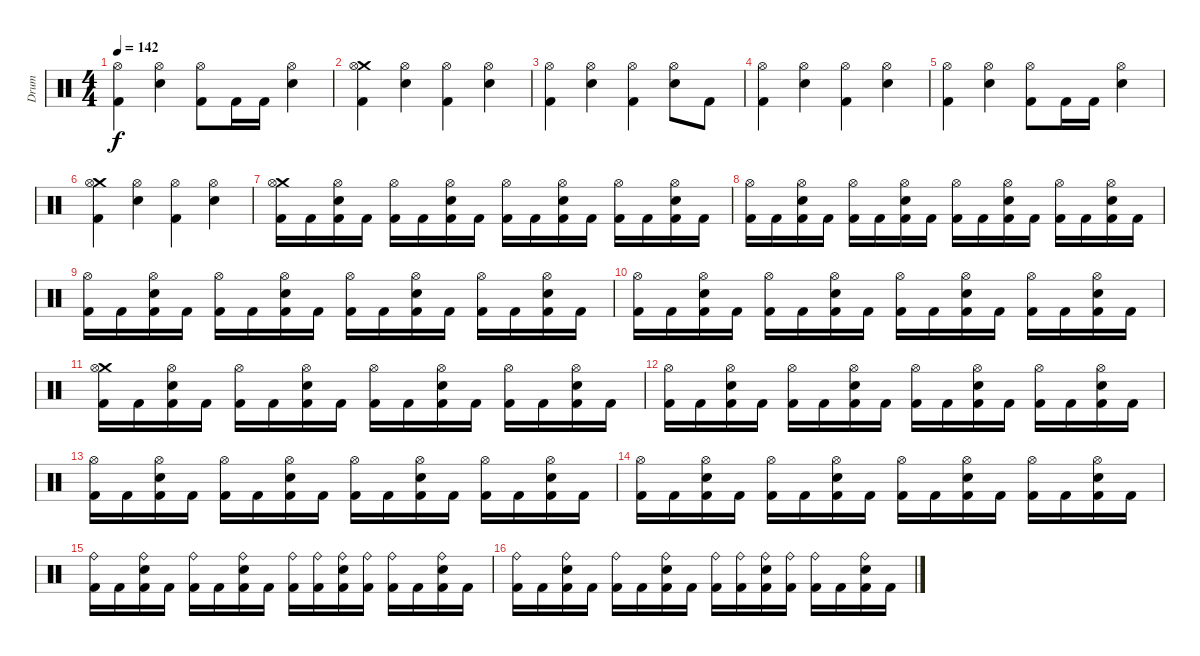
\track ("Drum" "Drum") {instrument percussion}
\staff {score}
\articulation defaults
\ts (4 4)
\tempo 142
\clef neutral
\ks c
("Kick (hit) 2" "Hi-Hat (open)").4{dy f} ("Electric Snare (hit)" "Hi-Hat (open)").4 ("Kick (hit) 2" "Hi-Hat (open)").8 "Kick (hit) 2".16 "Kick (hit) 2".16 ("Electric Snare (hit)" "Hi-Hat (open)").4 |
("Crash medium (hit)" "Kick (hit) 2" "Hi-Hat (open)").4 ("Electric Snare (hit)" "Hi-Hat (open)").4 ("Kick (hit) 2" "Hi-Hat (open)").4 ("Electric Snare (hit)" "Hi-Hat (open)").4 |
("Kick (hit) 2" "Hi-Hat (open)").4 ("Electric Snare (hit)" "Hi-Hat (open)").4 ("Kick (hit) 2" "Hi-Hat (open)").4 ("Electric Snare (hit)" "Hi-Hat (open)").8 "Kick (hit) 2".8 |
("Kick (hit) 2" "Hi-Hat (open)").4 ("Electric Snare (hit)" "Hi-Hat (open)").4 ("Kick (hit) 2" "Hi-Hat (open)").4 ("Electric Snare (hit)" "Hi-Hat (open)").4 |
("Kick (hit) 2" "Hi-Hat (open)").4 ("Electric Snare (hit)" "Hi-Hat (open)").4 ("Kick (hit) 2" "Hi-Hat (open)").8 "Kick (hit) 2".16 "Kick (hit) 2".16 ("Electric Snare (hit)" "Hi-Hat (open)").4 |
("Crash medium (hit)" "Kick (hit) 2" "Hi-Hat (open)").4 ("Electric Snare (hit)" "Hi-Hat (open)").4 ("Kick (hit) 2" "Hi-Hat (open)").4 ("Electric Snare (hit)" "Hi-Hat (open)").4 |
("Crash medium (hit)" "Hi-Hat (open)" "Kick (hit) 2").16 "Kick (hit) 2".16 ("Electric Snare (hit)" "Hi-Hat (open)" "Kick (hit) 2").16 "Kick (hit) 2".16 ("Hi-Hat (open)" "Kick (hit) 2").16 "Kick (hit) 2".16 ("Electric Snare (hit)" "Hi-Hat (open)" "Kick (hit) 2").16 "Kick (hit) 2".16 ("Hi-Hat (open)" "Kick (hit) 2").16 "Kick (hit) 2".16 ("Electric Snare (hit)" "Hi-Hat (open)" "Kick (hit) 2").16 "Kick (hit) 2".16 ("Hi-Hat (open)" "Kick (hit) 2").16 "Kick (hit) 2".16 ("Electric Snare (hit)" "Hi-Hat (open)" "Kick (hit) 2").16 "Kick (hit) 2".16 |
("Hi-Hat (open)" "Kick (hit) 2").16 "Kick (hit) 2".16 ("Electric Snare (hit)" "Hi-Hat (open)" "Kick (hit) 2").16 "Kick (hit) 2".16 ("Hi-Hat (open)" "Kick (hit) 2").16 "Kick (hit) 2".16 ("Electric Snare (hit)" "Hi-Hat (open)" "Kick (hit) 2").16 "Kick (hit) 2".16 ("Hi-Hat (open)" "Kick (hit) 2").16 "Kick (hit) 2".16 ("Electric Snare (hit)" "Hi-Hat (open)" "Kick (hit) 2").16 "Kick (hit) 2".16 ("Hi-Hat (open)" "Kick (hit) 2").16 "Kick (hit) 2".16 ("Electric Snare (hit)" "Hi-Hat (open)" "Kick (hit) 2").16 "Kick (hit) 2".16 |
("Hi-Hat (open)" "Kick (hit) 2").16 "Kick (hit) 2".16 ("Electric Snare (hit)" "Hi-Hat (open)" "Kick (hit) 2").16 "Kick (hit) 2".16 ("Hi-Hat (open)" "Kick (hit) 2").16 "Kick (hit) 2".16 ("Electric Snare (hit)" "Hi-Hat (open)" "Kick (hit) 2").16 "Kick (hit) 2".16 ("Hi-Hat (open)" "Kick (hit) 2").16 "Kick (hit) 2".16 ("Electric Snare (hit)" "Hi-Hat (open)" "Kick (hit) 2").16 "Kick (hit) 2".16 ("Hi-Hat (open)" "Kick (hit) 2").16 "Kick (hit) 2".16 ("Electric Snare (hit)" "Hi-Hat (open)" "Kick (hit) 2").16 "Kick (hit) 2".16 |
("Hi-Hat (open)" "Kick (hit) 2").16 "Kick (hit) 2".16 ("Electric Snare (hit)" "Hi-Hat (open)" "Kick (hit) 2").16 "Kick (hit) 2".16 ("Hi-Hat (open)" "Kick (hit) 2").16 "Kick (hit) 2".16 ("Electric Snare (hit)" "Hi-Hat (open)" "Kick (hit) 2").16 "Kick (hit) 2".16 ("Hi-Hat (open)" "Kick (hit) 2").16 "Kick (hit) 2".16 ("Electric Snare (hit)" "Hi-Hat (open)" "Kick (hit) 2").16 "Kick (hit) 2".16 ("Hi-Hat (open)" "Kick (hit) 2").16 "Kick (hit) 2".16 ("Electric Snare (hit)" "Hi-Hat (open)" "Kick (hit) 2").16 "Kick (hit) 2".16 |
("Crash medium (hit)" "Hi-Hat (open)" "Kick (hit) 2").16 "Kick (hit) 2".16 ("Electric Snare (hit)" "Hi-Hat (open)" "Kick (hit) 2").16 "Kick (hit) 2".16 ("Hi-Hat (open)" "Kick (hit) 2").16 "Kick (hit) 2".16 ("Electric Snare (hit)" "Hi-Hat (open)" "Kick (hit) 2").16 "Kick (hit) 2".16 ("Hi-Hat (open)" "Kick (hit) 2").16 "Kick (hit) 2".16 ("Electric Snare (hit)" "Hi-Hat (open)" "Kick (hit) 2").16 "Kick (hit) 2".16 ("Hi-Hat (open)" "Kick (hit) 2").16 "Kick (hit) 2".16 ("Electric Snare (hit)" "Hi-Hat (open)" "Kick (hit) 2").16 "Kick (hit) 2".16 |
("Hi-Hat (open)" "Kick (hit) 2").16 "Kick (hit) 2".16 ("Electric Snare (hit)" "Hi-Hat (open)" "Kick (hit) 2").16 "Kick (hit) 2".16 ("Hi-Hat (open)" "Kick (hit) 2").16 "Kick (hit) 2".16 ("Electric Snare (hit)" "Hi-Hat (open)" "Kick (hit) 2").16 "Kick (hit) 2".16 ("Hi-Hat (open)" "Kick (hit) 2").16 "Kick (hit) 2".16 ("Electric Snare (hit)" "Hi-Hat (open)" "Kick (hit) 2").16 "Kick (hit) 2".16 ("Hi-Hat (open)" "Kick (hit) 2").16 "Kick (hit) 2".16 ("Electric Snare (hit)" "Hi-Hat (open)" "Kick (hit) 2").16 "Kick (hit) 2".16 |
("Hi-Hat (open)" "Kick (hit) 2").16 "Kick (hit) 2".16 ("Electric Snare (hit)" "Hi-Hat (open)" "Kick (hit) 2").16 "Kick (hit) 2".16 ("Hi-Hat (open)" "Kick (hit) 2").16 "Kick (hit) 2".16 ("Electric Snare (hit)" "Hi-Hat (open)" "Kick (hit) 2").16 "Kick (hit) 2".16 ("Hi-Hat (open)" "Kick (hit) 2").16 "Kick (hit) 2".16 ("Electric Snare (hit)" "Hi-Hat (open)" "Kick (hit) 2").16 "Kick (hit) 2".16 ("Hi-Hat (open)" "Kick (hit) 2").16 "Kick (hit) 2".16 ("Electric Snare (hit)" "Hi-Hat (open)" "Kick (hit) 2").16 "Kick (hit) 2".16 |
("Hi-Hat (open)" "Kick (hit) 2").16 "Kick (hit) 2".16 ("Electric Snare (hit)" "Hi-Hat (open)" "Kick (hit) 2").16 "Kick (hit) 2".16 ("Hi-Hat (open)" "Kick (hit) 2").16 "Kick (hit) 2".16 ("Electric Snare (hit)" "Hi-Hat (open)" "Kick (hit) 2").16 "Kick (hit) 2".16 ("Hi-Hat (open)" "Kick (hit) 2").16 "Kick (hit) 2".16 ("Electric Snare (hit)" "Hi-Hat (open)" "Kick (hit) 2").16 "Kick (hit) 2".16 ("Hi-Hat (open)" "Kick (hit) 2").16 "Kick (hit) 2".16 ("Electric Snare (hit)" "Hi-Hat (open)" "Kick (hit) 2").16 "Kick (hit) 2".16 |
("Ride (bell)" "Kick (hit) 2").16 "Kick (hit) 2".16 ("Electric Snare (hit)" "Ride (bell)" "Kick (hit) 2").16 "Kick (hit) 2".16 ("Ride (bell)" "Kick (hit) 2").16 "Kick (hit) 2".16 ("Electric Snare (hit)" "Ride (bell)" "Kick (hit) 2").16 "Kick (hit) 2".16 ("Ride (bell)" "Kick (hit) 2").16 ("Kick (hit) 2" "Ride (bell)").16 ("Electric Snare (hit)" "Ride (bell)" "Kick (hit) 2").16 ("Kick (hit) 2" "Ride (bell)").16 ("Ride (bell)" "Kick (hit) 2").16 "Kick (hit) 2".16 ("Electric Snare (hit)" "Ride (bell)" "Kick (hit) 2").16 "Kick (hit) 2".16 |
("Ride (bell)" "Kick (hit) 2").16 "Kick (hit) 2".16 ("Electric Snare (hit)" "Ride (bell)" "Kick (hit) 2").16 "Kick (hit) 2".16 ("Ride (bell)" "Kick (hit) 2").16 "Kick (hit) 2".16 ("Electric Snare (hit)" "Ride (bell)" "Kick (hit) 2").16 "Kick (hit) 2".16 ("Ride (bell)" "Kick (hit) 2").16 ("Kick (hit) 2" "Ride (bell)").16 ("Electric Snare (hit)" "Ride (bell)" "Kick (hit) 2").16 ("Kick (hit) 2" "Ride (bell)").16 ("Ride (bell)" "Kick (hit) 2").16 "Kick (hit) 2".16 ("Electric Snare (hit)" "Ride (bell)" "Kick (hit) 2").16 "Kick (hit) 2".16
